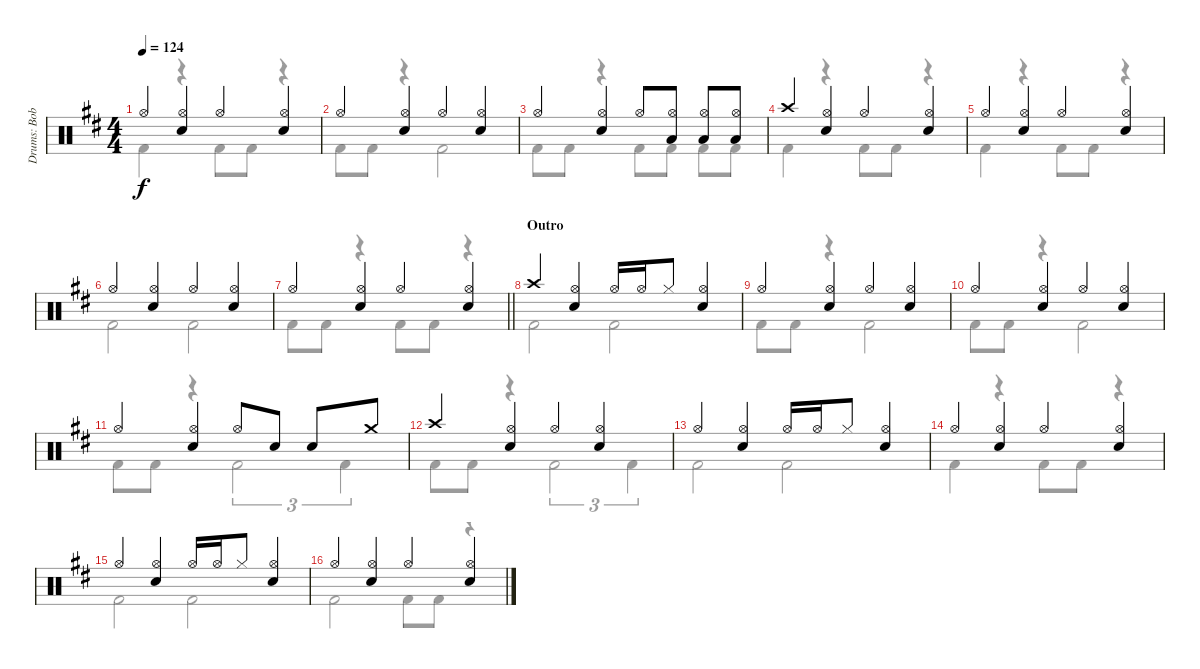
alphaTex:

\track ("Drums: Bobby" "Drums: Bob") {instrument percussion}
\staff {score}
\articulation defaults
\voice
\ts (4 4)
\tempo 124
\clef neutral
\ks d "Hi-Hat (open)".4{dy f}
("Hi-Hat (open)" "Snare (hit) 2").4 "Hi-Hat (open)".4 ("Hi-Hat (open)" "Snare (hit) 2").4 |
"Hi-Hat (open)".4 ("Hi-Hat (open)" "Snare (hit) 2").4 "Hi-Hat (open)".4 ("Hi-Hat (open)" "Snare (hit) 2").4 |
"Hi-Hat (open)".4 ("Hi-Hat (open)" "Snare (hit) 2").4 "Hi-Hat (open)".8 ("Hi-Hat (open)" "Low Tom (hit)").8 ("Hi-Hat (open)" "Low Tom (hit)").8 ("Hi-Hat (open)" "Low Tom (hit)").8 |
"Crash high (hit)".4 ("Hi-Hat (open)" "Snare (hit) 2").4 "Hi-Hat (open)".4 ("Hi-Hat (open)" "Snare (hit) 2").4 |
"Hi-Hat (open)".4 ("Hi-Hat (open)" "Snare (hit) 2").4 "Hi-Hat (open)".4 ("Hi-Hat (open)" "Snare (hit) 2").4 |
"Hi-Hat (open)".4 ("Hi-Hat (open)" "Snare (hit) 2").4 "Hi-Hat (open)".4 ("Hi-Hat (open)" "Snare (hit) 2").4 |
\barLineRight lightlight "Hi-Hat (open)".4
("Hi-Hat (open)" "Snare (hit) 2").4 "Hi-Hat (open)".4 ("Hi-Hat (open)" "Snare (hit) 2").4 |
\section ("" "Outro")
"Crash high (hit)".4 ("Hi-Hat (open)" "Snare (hit) 2").4 "Hi-Hat (open)".16 "Hi-Hat (open)".16 "Hi-Hat (closed)".8 ("Hi-Hat (open)" "Snare (hit) 2").4 |
"Hi-Hat (open)".4 ("Hi-Hat (open)" "Snare (hit) 2").4 "Hi-Hat (open)".4 ("Hi-Hat (open)" "Snare (hit) 2").4 |
"Hi-Hat (open)".4 ("Hi-Hat (open)" "Snare (hit) 2").4 "Hi-Hat (open)".4 ("Hi-Hat (open)" "Snare (hit) 2").4 |
"Hi-Hat (open)".4 ("Hi-Hat (open)" "Snare (hit) 2").4 "Hi-Hat (open)".8 "Snare (hit) 2".8 "Snare (hit) 2".8 "Crash medium (hit)".8 |
"Crash high (hit)".4 ("Hi-Hat (open)" "Snare (hit) 2").4 "Hi-Hat (open)".4 ("Hi-Hat (open)" "Snare (hit) 2").4 |
"Hi-Hat (open)".4 ("Hi-Hat (open)" "Snare (hit) 2").4 "Hi-Hat (open)".16 "Hi-Hat (open)".16 "Hi-Hat (closed)".8 ("Hi-Hat (open)" "Snare (hit) 2").4 |
"Hi-Hat (open)".4 ("Hi-Hat (open)" "Snare (hit) 2").4 "Hi-Hat (open)".4 ("Hi-Hat (open)" "Snare (hit) 2").4 |
"Hi-Hat (open)".4 ("Hi-Hat (open)" "Snare (hit) 2").4 "Hi-Hat (open)".16 "Hi-Hat (open)".16 "Hi-Hat (closed)".8 ("Hi-Hat (open)" "Snare (hit) 2").4 |
"Hi-Hat (open)".4 ("Hi-Hat (open)" "Snare (hit) 2").4 "Hi-Hat (open)".4 ("Hi-Hat (open)" "Snare (hit) 2").4
\voice
\clef neutral
\ottava regular
\simile none
\ks d "Kick (hit) 2".4{dy f}
r.4 "Kick (hit) 2".8 "Kick (hit) 2".8 r.4 |
"Kick (hit) 2".8 "Kick (hit) 2".8 r.4 "Kick (hit) 2".2 |
"Kick (hit) 2".8 "Kick (hit) 2".8 r.4 "Kick (hit) 2".8 "Kick (hit) 2".8 "Kick (hit) 2".8 "Kick (hit) 2".8 |
"Kick (hit) 2".4 r.4 "Kick (hit) 2".8 "Kick (hit) 2".8 r.4 |
"Kick (hit) 2".4 r.4 "Kick (hit) 2".8 "Kick (hit) 2".8 r.4 |
"Kick (hit) 2".2 "Kick (hit) 2".2 |
\barLineRight lightlight "Kick (hit) 2".8 "Kick (hit) 2".8
r.4 "Kick (hit) 2".8 "Kick (hit) 2".8 r.4 |
"Kick (hit) 2".2 "Kick (hit) 2".2 |
"Kick (hit) 2".8 "Kick (hit) 2".8 r.4 "Kick (hit) 2".2 |
"Kick (hit) 2".8 "Kick (hit) 2".8 r.4 "Kick (hit) 2".2 |
"Kick (hit) 2".8 "Kick (hit) 2".8 r.4 "Kick (hit) 2".2{tu (3 2)} "Kick (hit) 2".4{tu (3 2)} |
"Kick (hit) 2".8 "Kick (hit) 2".8 r.4 "Kick (hit) 2".2{tu (3 2)} "Kick (hit) 2".4{tu (3 2)} |
"Kick (hit) 2".2 "Kick (hit) 2".2 |
"Kick (hit) 2".4 r.4 "Kick (hit) 2".8 "Kick (hit) 2".8 r.4 |
"Kick (hit) 2".2 "Kick (hit) 2".2 |
"Kick (hit) 2".2 "Kick (hit) 2".8 "Kick (hit) 2".8 r.4
